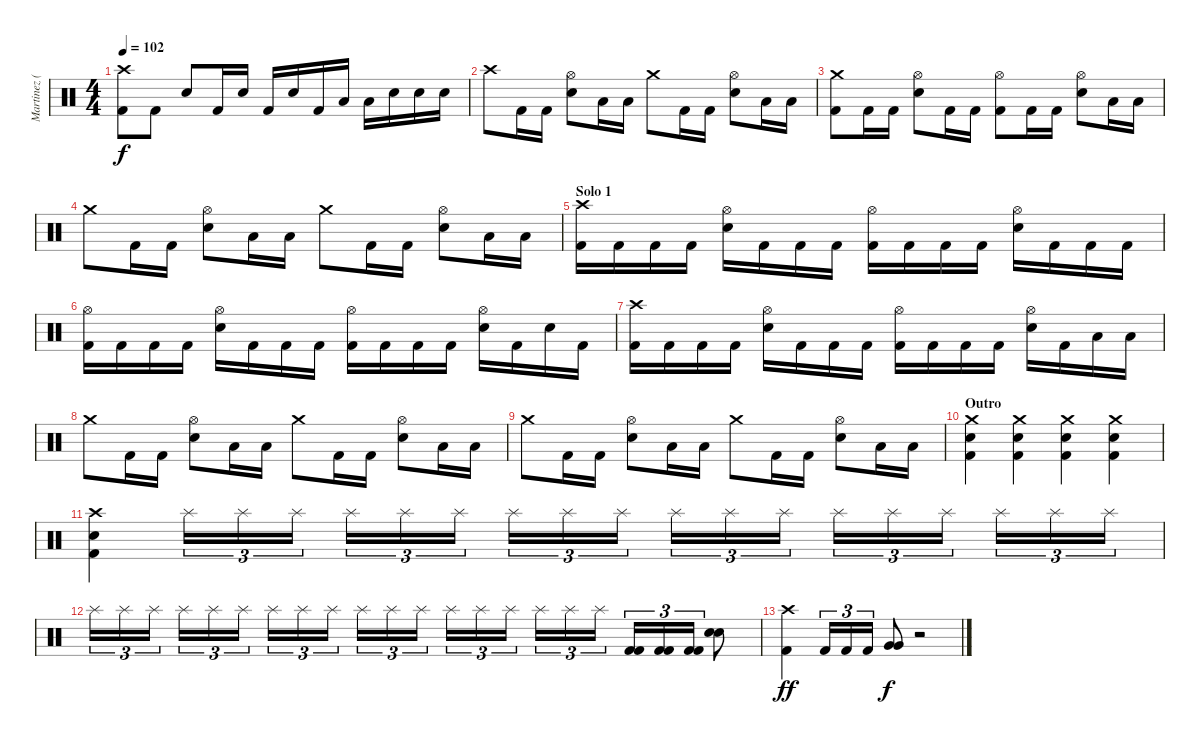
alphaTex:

\track ("Martinez (bateria)" "Martinez (") {instrument percussion}
\staff {score}
\articulation defaults
\ts (4 4)
\tempo 102
\clef neutral
\ks c
("Crash high (hit)" "Kick (hit) 2").8{dy f} "Kick (hit) 2".8 "Electric Snare (hit)".8 "Kick (hit) 2".16 "Electric Snare (hit)".16 "Kick (hit) 2".16 "Electric Snare (hit)".16 "Kick (hit) 2".16 "Low Tom (hit)".16 "Low Tom (hit)".16 "Electric Snare (hit)".16 "Electric Snare (hit)".16 "Electric Snare (hit)".16 |
"Crash high (hit)".8 "Kick (hit) 2".16 "Kick (hit) 2".16 ("Hi-Hat (open)" "Electric Snare (hit)").8 "Low Tom (hit)".16 "Low Tom (hit)".16 "Crash medium (hit)".8 "Kick (hit) 2".16 "Kick (hit) 2".16 ("Hi-Hat (open)" "Electric Snare (hit)").8 "Low Tom (hit)".16 "Low Tom (hit)".16 |
("Crash medium (hit)" "Kick (hit) 2").8 "Kick (hit) 2".16 "Kick (hit) 2".16 ("Hi-Hat (open)" "Snare (hit) 2").8 "Kick (hit) 2".16 "Kick (hit) 2".16 ("Hi-Hat (open)" "Kick (hit) 2").8 "Kick (hit) 2".16 "Kick (hit) 2".16 ("Hi-Hat (open)" "Snare (hit) 2").8 "Low Tom (hit)".16 "Low Tom (hit)".16 |
"Crash medium (hit)".8 "Kick (hit) 2".16 "Kick (hit) 2".16 ("Hi-Hat (open)" "Electric Snare (hit)").8 "Low Tom (hit)".16 "Low Tom (hit)".16 "Crash medium (hit)".8 "Kick (hit) 2".16 "Kick (hit) 2".16 ("Hi-Hat (open)" "Electric Snare (hit)").8 "Low Tom (hit)".16 "Low Tom (hit)".16 |
\section ("" "Solo 1")
("Crash high (hit)" "Kick (hit) 2").16 "Kick (hit) 2".16 "Kick (hit) 2".16 "Kick (hit) 2".16 ("Hi-Hat (open)" "Electric Snare (hit)").16 "Kick (hit) 2".16 "Kick (hit) 2".16 "Kick (hit) 2".16 ("Hi-Hat (open)" "Kick (hit) 2").16 "Kick (hit) 2".16 "Kick (hit) 2".16 "Kick (hit) 2".16 ("Hi-Hat (open)" "Electric Snare (hit)").16 "Kick (hit) 2".16 "Kick (hit) 2".16 "Kick (hit) 2".16 |
("Hi-Hat (open)" "Kick (hit) 2").16 "Kick (hit) 2".16 "Kick (hit) 2".16 "Kick (hit) 2".16 ("Hi-Hat (open)" "Electric Snare (hit)").16 "Kick (hit) 2".16 "Kick (hit) 2".16 "Kick (hit) 2".16 ("Hi-Hat (open)" "Kick (hit) 2").16 "Kick (hit) 2".16 "Kick (hit) 2".16 "Kick (hit) 2".16 ("Hi-Hat (open)" "Electric Snare (hit)").16 "Kick (hit) 2".16 "Electric Snare (hit)".16 "Kick (hit) 2".16 |
("Crash high (hit)" "Kick (hit) 2").16 "Kick (hit) 2".16 "Kick (hit) 2".16 "Kick (hit) 2".16 ("Hi-Hat (open)" "Electric Snare (hit)").16 "Kick (hit) 2".16 "Kick (hit) 2".16 "Kick (hit) 2".16 ("Hi-Hat (open)" "Kick (hit) 2").16 "Kick (hit) 2".16 "Kick (hit) 2".16 "Kick (hit) 2".16 ("Hi-Hat (open)" "Electric Snare (hit)").16 "Kick (hit) 2".16 "Low Tom (hit)".16 "Low Tom (hit)".16 |
"Crash medium (hit)".8 "Kick (hit) 2".16 "Kick (hit) 2".16 ("Hi-Hat (open)" "Electric Snare (hit)").8 "Low Tom (hit)".16 "Low Tom (hit)".16 "Crash medium (hit)".8 "Kick (hit) 2".16 "Kick (hit) 2".16 ("Hi-Hat (open)" "Electric Snare (hit)").8 "Low Tom (hit)".16 "Low Tom (hit)".16 |
"Crash medium (hit)".8 "Kick (hit) 2".16 "Kick (hit) 2".16 ("Hi-Hat (open)" "Electric Snare (hit)").8 "Low Tom (hit)".16 "Low Tom (hit)".16 "Crash medium (hit)".8 "Kick (hit) 2".16 "Kick (hit) 2".16 ("Hi-Hat (open)" "Electric Snare (hit)").8 "Low Tom (hit)".16 "Low Tom (hit)".16 |
\section ("" "Outro")
("Crash medium (hit)" "Electric Snare (hit)" "Kick (hit) 2").4 ("Crash medium (hit)" "Electric Snare (hit)" "Kick (hit) 2").4 ("Crash medium (hit)" "Electric Snare (hit)" "Kick (hit) 2").4 ("Crash medium (hit)" "Electric Snare (hit)" "Kick (hit) 2").4 |
("Crash high (hit)" "Electric Snare (hit)" "Kick (hit) 2").4 "Splash (hit)".16{tu (3 2)} "Splash (hit)".16{tu (3 2)} "Splash (hit)".16{tu (3 2)} "Splash (hit)".16{tu (3 2)} "Splash (hit)".16{tu (3 2)} "Splash (hit)".16{tu (3 2)} "Splash (hit)".16{tu (3 2)} "Splash (hit)".16{tu (3 2)} "Splash (hit)".16{tu (3 2)} "Splash (hit)".16{tu (3 2)} "Splash (hit)".16{tu (3 2)} "Splash (hit)".16{tu (3 2)} "Splash (hit)".16{tu (3 2)} "Splash (hit)".16{tu (3 2)} "Splash (hit)".16{tu (3 2)} "Splash (hit)".16{tu (3 2)} "Splash (hit)".16{tu (3 2)} "Splash (hit)".16{tu (3 2)} |
"Splash (hit)".16{tu (3 2)} "Splash (hit)".16{tu (3 2)} "Splash (hit)".16{tu (3 2)} "Splash (hit)".16{tu (3 2)} "Splash (hit)".16{tu (3 2)} "Splash (hit)".16{tu (3 2)} "Splash (hit)".16{tu (3 2)} "Splash (hit)".16{tu (3 2)} "Splash (hit)".16{tu (3 2)} "Splash (hit)".16{tu (3 2)} "Splash (hit)".16{tu (3 2)} "Splash (hit)".16{tu (3 2)} "Splash (hit)".16{tu (3 2)} "Splash (hit)".16{tu (3 2)} "Splash (hit)".16{tu (3 2)} "Splash (hit)".16{tu (3 2)} "Splash (hit)".16{tu (3 2)} "Splash (hit)".16{tu (3 2)} ("Kick (hit) 2" "Kick (hit) 2").16{tu (3 2)} ("Kick (hit) 2" "Kick (hit) 2").16{tu (3 2)} ("Kick (hit) 2" "Kick (hit) 2").16{tu (3 2)} ("Electric Snare (hit)" "Electric Snare (hit)").8 |
("Crash high (hit)" "Kick (hit) 2").4{dy ff} "Kick (hit) 2".16{tu (3 2)} "Kick (hit) 2".16{tu (3 2)} "Kick (hit) 2".16{tu (3 2)} ("Very Low Tom (hit)" "Very Low Tom (hit)").8{dy f} r.2
